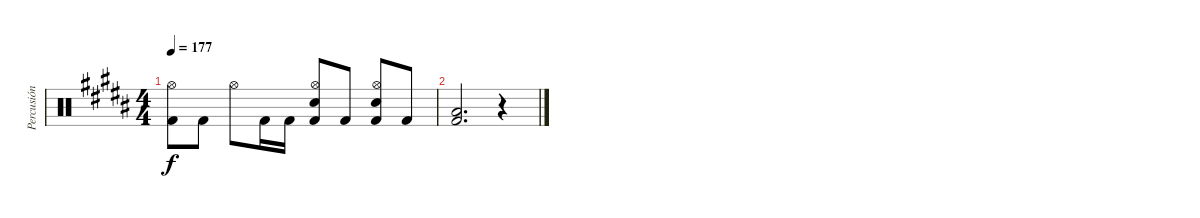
\track ("Percusión" "Percusión") {instrument percussion}
\staff {score}
\articulation defaults
\ts (4 4)
\tempo 177
\clef neutral
\ks g#minor
("Kick (hit) 2" "Hi-Hat (open)").8{dy f} "Kick (hit) 2".8 "Hi-Hat (open)".8 "Kick (hit) 2".16 "Kick (hit) 2".16 ("Kick (hit) 2" "Snare (hit) 2" "Hi-Hat (open)").8 "Kick (hit) 2".8 ("Kick (hit) 2" "Snare (hit) 2" "Hi-Hat (open)").8 "Kick (hit) 2".8 |
("Kick (hit) 2" "Low Floor Tom (hit)").2{d} r.4
